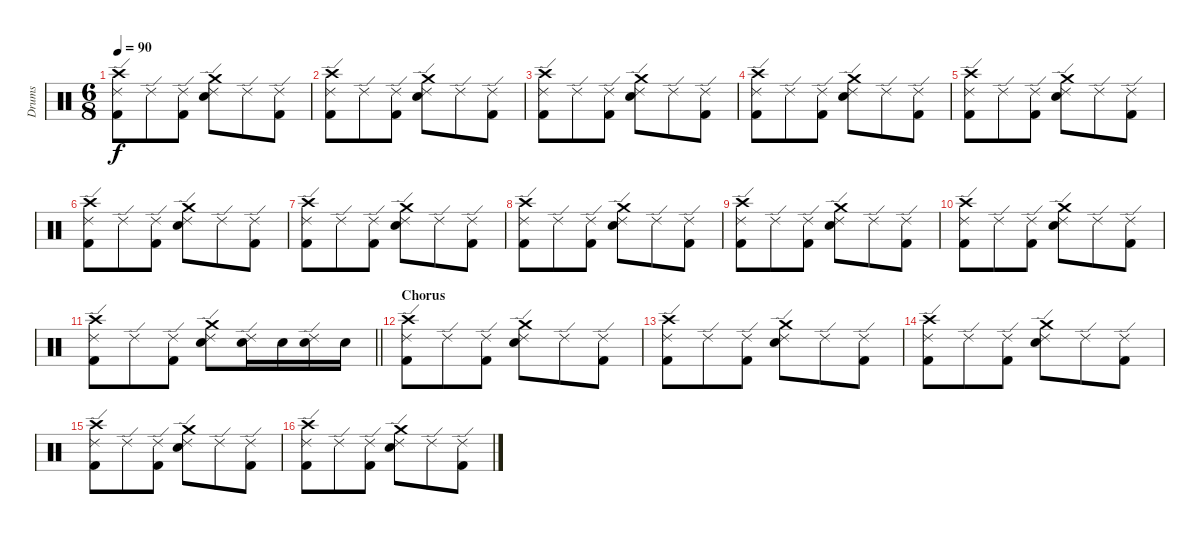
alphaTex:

\track ("Drums" "Drums") {instrument percussion}
\staff {score}
\articulation defaults
\ts (6 8)
\tempo 90
\clef neutral
\ks c
("Ride (edge) 2" "Kick (hit) 2" "Crash high (hit)").8{dy f} "Ride (edge) 2".8 ("Ride (edge) 2" "Kick (hit) 2").8 ("Ride (edge) 2" "Snare (hit) 2" "Crash medium (hit)").8 "Ride (edge) 2".8 ("Ride (edge) 2" "Kick (hit) 2").8 |
("Ride (edge) 2" "Kick (hit) 2" "Crash high (hit)").8 "Ride (edge) 2".8 ("Ride (edge) 2" "Kick (hit) 2").8 ("Ride (edge) 2" "Snare (hit) 2" "Crash medium (hit)").8 "Ride (edge) 2".8 ("Ride (edge) 2" "Kick (hit) 2").8 |
("Ride (edge) 2" "Kick (hit) 2" "Crash high (hit)").8 "Ride (edge) 2".8 ("Ride (edge) 2" "Kick (hit) 2").8 ("Ride (edge) 2" "Snare (hit) 2" "Crash medium (hit)").8 "Ride (edge) 2".8 ("Ride (edge) 2" "Kick (hit) 2").8 |
("Ride (edge) 2" "Kick (hit) 2" "Crash high (hit)").8 "Ride (edge) 2".8 ("Ride (edge) 2" "Kick (hit) 2").8 ("Ride (edge) 2" "Snare (hit) 2" "Crash medium (hit)").8 "Ride (edge) 2".8 ("Ride (edge) 2" "Kick (hit) 2").8 |
("Ride (edge) 2" "Kick (hit) 2" "Crash high (hit)").8 "Ride (edge) 2".8 ("Ride (edge) 2" "Kick (hit) 2").8 ("Ride (edge) 2" "Snare (hit) 2" "Crash medium (hit)").8 "Ride (edge) 2".8 ("Ride (edge) 2" "Kick (hit) 2").8 |
("Ride (edge) 2" "Kick (hit) 2" "Crash high (hit)").8 "Ride (edge) 2".8 ("Ride (edge) 2" "Kick (hit) 2").8 ("Ride (edge) 2" "Snare (hit) 2" "Crash medium (hit)").8 "Ride (edge) 2".8 ("Ride (edge) 2" "Kick (hit) 2").8 |
("Ride (edge) 2" "Kick (hit) 2" "Crash high (hit)").8 "Ride (edge) 2".8 ("Ride (edge) 2" "Kick (hit) 2").8 ("Ride (edge) 2" "Snare (hit) 2" "Crash medium (hit)").8 "Ride (edge) 2".8 ("Ride (edge) 2" "Kick (hit) 2").8 |
("Ride (edge) 2" "Kick (hit) 2" "Crash high (hit)").8 "Ride (edge) 2".8 ("Ride (edge) 2" "Kick (hit) 2").8 ("Ride (edge) 2" "Snare (hit) 2" "Crash medium (hit)").8 "Ride (edge) 2".8 ("Ride (edge) 2" "Kick (hit) 2").8 |
("Ride (edge) 2" "Kick (hit) 2" "Crash high (hit)").8 "Ride (edge) 2".8 ("Ride (edge) 2" "Kick (hit) 2").8 ("Ride (edge) 2" "Snare (hit) 2" "Crash medium (hit)").8 "Ride (edge) 2".8 ("Ride (edge) 2" "Kick (hit) 2").8 |
("Ride (edge) 2" "Kick (hit) 2" "Crash high (hit)").8 "Ride (edge) 2".8 ("Ride (edge) 2" "Kick (hit) 2").8 ("Ride (edge) 2" "Snare (hit) 2" "Crash medium (hit)").8 "Ride (edge) 2".8 ("Ride (edge) 2" "Kick (hit) 2").8 |
\barLineRight lightlight
("Ride (edge) 2" "Kick (hit) 2" "Crash high (hit)").8 "Ride (edge) 2".8 ("Ride (edge) 2" "Kick (hit) 2").8 ("Ride (edge) 2" "Snare (hit) 2" "Crash medium (hit)").8 ("Ride (edge) 2" "Snare (hit) 2").16 "Snare (hit) 2".16 ("Ride (edge) 2" "Snare (hit) 2").16 "Snare (hit) 2".16 |
\section ("" "Chorus")
("Ride (edge) 2" "Kick (hit) 2" "Crash high (hit)").8 "Ride (edge) 2".8 ("Ride (edge) 2" "Kick (hit) 2").8 ("Ride (edge) 2" "Snare (hit) 2" "Crash medium (hit)").8 "Ride (edge) 2".8 ("Ride (edge) 2" "Kick (hit) 2").8 |
("Ride (edge) 2" "Kick (hit) 2" "Crash high (hit)").8 "Ride (edge) 2".8 ("Ride (edge) 2" "Kick (hit) 2").8 ("Ride (edge) 2" "Snare (hit) 2" "Crash medium (hit)").8 "Ride (edge) 2".8 ("Ride (edge) 2" "Kick (hit) 2").8 |
("Ride (edge) 2" "Kick (hit) 2" "Crash high (hit)").8 "Ride (edge) 2".8 ("Ride (edge) 2" "Kick (hit) 2").8 ("Ride (edge) 2" "Snare (hit) 2" "Crash medium (hit)").8 "Ride (edge) 2".8 ("Ride (edge) 2" "Kick (hit) 2").8 |
("Ride (edge) 2" "Kick (hit) 2" "Crash high (hit)").8 "Ride (edge) 2".8 ("Ride (edge) 2" "Kick (hit) 2").8 ("Ride (edge) 2" "Snare (hit) 2" "Crash medium (hit)").8 "Ride (edge) 2".8 ("Ride (edge) 2" "Kick (hit) 2").8 |
("Ride (edge) 2" "Kick (hit) 2" "Crash high (hit)").8 "Ride (edge) 2".8 ("Ride (edge) 2" "Kick (hit) 2").8 ("Ride (edge) 2" "Snare (hit) 2" "Crash medium (hit)").8 "Ride (edge) 2".8 ("Ride (edge) 2" "Kick (hit) 2").8
